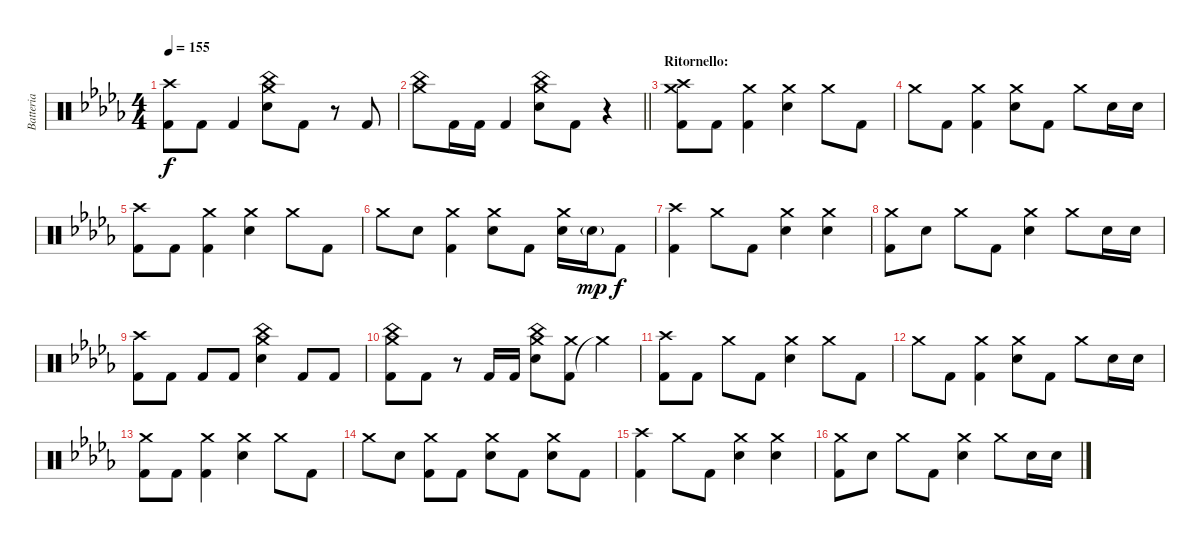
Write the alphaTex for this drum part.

\track ("Batteria" "Batteria") {instrument percussion}
\staff {score}
\articulation defaults
\ts (4 4)
\tempo 155
\clef neutral
\ks bbminor
("Kick (hit) 2" "Crash high (hit)").8{dy f} "Kick (hit) 2".8 "Kick (hit) 2".4 ("Snare (hit) 2" "China (hit)" "Crash medium (hit)").8 "Kick (hit) 2".8 r.8 "Kick (hit) 2".8 |
\barLineRight lightlight
("China (hit)" "Crash medium (hit)").8 "Kick (hit) 2".16 "Kick (hit) 2".16 "Kick (hit) 2".4 ("Snare (hit) 2" "China (hit)" "Crash medium (hit)").8 "Kick (hit) 2".8 r.4 |
\section ("" "Ritornello:")
("Kick (hit) 2" "Crash medium (hit)" "Crash high (hit)").8 "Kick (hit) 2".8 ("Kick (hit) 2" "Crash medium (hit)").4 ("Snare (hit) 2" "Crash medium (hit)").4 "Crash medium (hit)".8 "Kick (hit) 2".8 |
"Crash medium (hit)".8 "Kick (hit) 2".8 ("Kick (hit) 2" "Crash medium (hit)").4 ("Snare (hit) 2" "Crash medium (hit)").8 "Kick (hit) 2".8 "Crash medium (hit)".8 "Snare (hit) 2".16 "Snare (hit) 2".16 |
("Kick (hit) 2" "Crash high (hit)").8 "Kick (hit) 2".8 ("Kick (hit) 2" "Crash medium (hit)").4 ("Snare (hit) 2" "Crash medium (hit)").4 "Crash medium (hit)".8 "Kick (hit) 2".8 |
"Crash medium (hit)".8 "Snare (hit) 2".8 ("Kick (hit) 2" "Crash medium (hit)").4 ("Snare (hit) 2" "Crash medium (hit)").8 "Kick (hit) 2".8 ("Snare (hit) 2" "Crash medium (hit)").16 "Snare (hit) 2"{g}.16{dy mp} "Kick (hit) 2".8{dy f} |
("Kick (hit) 2" "Crash high (hit)").4 "Crash medium (hit)".8 "Kick (hit) 2".8 ("Snare (hit) 2" "Crash medium (hit)").4 ("Snare (hit) 2" "Crash medium (hit)").4 |
("Kick (hit) 2" "Crash medium (hit)").8 "Snare (hit) 2".8 "Crash medium (hit)".8 "Kick (hit) 2".8 ("Snare (hit) 2" "Crash medium (hit)").4 "Crash medium (hit)".8 "Snare (hit) 2".16 "Snare (hit) 2".16 |
("Kick (hit) 2" "Crash high (hit)").8 "Kick (hit) 2".8 "Kick (hit) 2".8 "Kick (hit) 2".8 ("Snare (hit) 2" "China (hit)" "Crash medium (hit)").4 "Kick (hit) 2".8 "Kick (hit) 2".8 |
("Kick (hit) 2" "China (hit)" "Crash medium (hit)").8 "Kick (hit) 2".8 r.8 "Kick (hit) 2".16 "Kick (hit) 2".16 ("Snare (hit) 2" "China (hit)" "Crash medium (hit)").8 ("Kick (hit) 2" "Crash medium (hit)").8 "Crash medium (hit)"{t}.4 |
("Kick (hit) 2" "Crash high (hit)").8 "Kick (hit) 2".8 "Crash medium (hit)".8 "Kick (hit) 2".8 ("Snare (hit) 2" "Crash medium (hit)").4 "Crash medium (hit)".8 "Kick (hit) 2".8 |
"Crash medium (hit)".8 "Kick (hit) 2".8 ("Kick (hit) 2" "Crash medium (hit)").4 ("Snare (hit) 2" "Crash medium (hit)").8 "Kick (hit) 2".8 "Crash medium (hit)".8 "Snare (hit) 2".16 "Snare (hit) 2".16 |
("Kick (hit) 2" "Crash medium (hit)").8 "Kick (hit) 2".8 ("Kick (hit) 2" "Crash medium (hit)").4 ("Snare (hit) 2" "Crash medium (hit)").4 "Crash medium (hit)".8 "Kick (hit) 2".8 |
"Crash medium (hit)".8 "Snare (hit) 2".8 ("Kick (hit) 2" "Crash medium (hit)").8 "Kick (hit) 2".8 ("Snare (hit) 2" "Crash medium (hit)").8 "Kick (hit) 2".8 ("Snare (hit) 2" "Crash medium (hit)").8 "Kick (hit) 2".8 |
("Kick (hit) 2" "Crash high (hit)").4 "Crash medium (hit)".8 "Kick (hit) 2".8 ("Snare (hit) 2" "Crash medium (hit)").4 ("Snare (hit) 2" "Crash medium (hit)").4 |
("Kick (hit) 2" "Crash medium (hit)").8 "Snare (hit) 2".8 "Crash medium (hit)".8 "Kick (hit) 2".8 ("Snare (hit) 2" "Crash medium (hit)").4 "Crash medium (hit)".8 "Snare (hit) 2".16 "Snare (hit) 2".16
